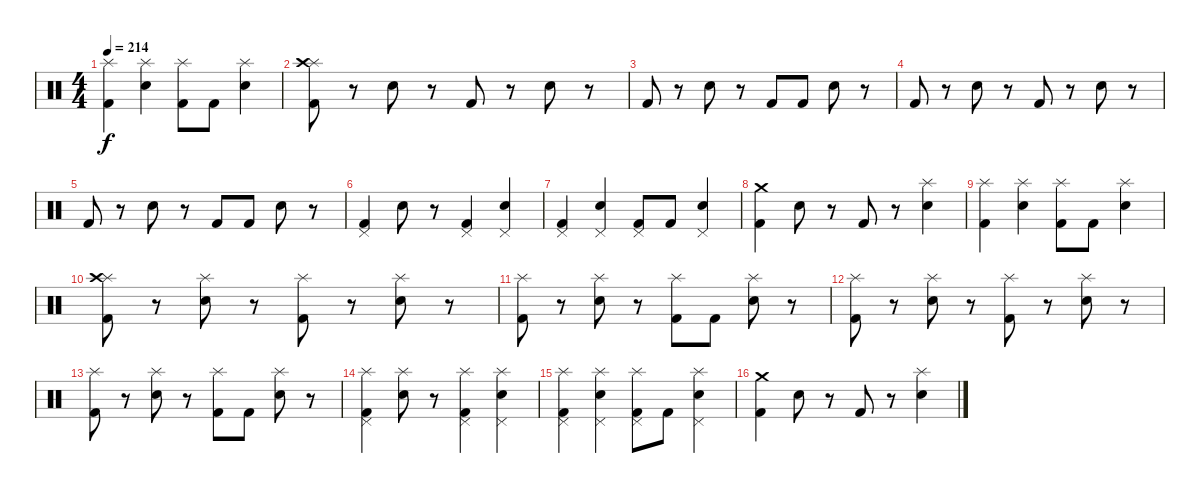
\track "" {instrument percussion}
\staff {score}
\articulation defaults
\ts (4 4)
\tempo 214
\clef neutral
\ks c
("Splash (hit)" "Kick (hit) 2").4{dy f} ("Splash (hit)" "Electric Snare (hit)").4 ("Splash (hit)" "Kick (hit) 2").8 "Kick (hit) 2".8 ("Splash (hit)" "Electric Snare (hit)").4 |
("Splash (hit)" "Crash high (hit)" "Kick (hit) 2").8 r.8 "Electric Snare (hit)".8 r.8 "Kick (hit) 2".8 r.8 "Electric Snare (hit)".8 r.8 |
"Kick (hit) 2".8 r.8 "Electric Snare (hit)".8 r.8 "Kick (hit) 2".8 "Kick (hit) 2".8 "Electric Snare (hit)".8 r.8 |
"Kick (hit) 2".8 r.8 "Electric Snare (hit)".8 r.8 "Kick (hit) 2".8 r.8 "Electric Snare (hit)".8 r.8 |
"Kick (hit) 2".8 r.8 "Electric Snare (hit)".8 r.8 "Kick (hit) 2".8 "Kick (hit) 2".8 "Electric Snare (hit)".8 r.8 |
("Pedal Hi-Hat (hit)" "Kick (hit) 2").4 "Electric Snare (hit)".8 r.8 ("Pedal Hi-Hat (hit)" "Kick (hit) 2").4 ("Pedal Hi-Hat (hit)" "Electric Snare (hit)").4 |
("Pedal Hi-Hat (hit)" "Kick (hit) 2").4 ("Pedal Hi-Hat (hit)" "Electric Snare (hit)").4 ("Pedal Hi-Hat (hit)" "Kick (hit) 2").8 "Kick (hit) 2".8 ("Pedal Hi-Hat (hit)" "Electric Snare (hit)").4 |
("Crash medium (hit)" "Kick (hit) 2").4 "Electric Snare (hit)".8 r.8 "Kick (hit) 2".8 r.8 ("Splash (hit)" "Electric Snare (hit)").4 |
("Splash (hit)" "Kick (hit) 2").4 ("Splash (hit)" "Electric Snare (hit)").4 ("Splash (hit)" "Kick (hit) 2").8 "Kick (hit) 2".8 ("Splash (hit)" "Electric Snare (hit)").4 |
("Splash (hit)" "Crash high (hit)" "Kick (hit) 2").8 r.8 ("Splash (hit)" "Electric Snare (hit)").8 r.8 ("Splash (hit)" "Kick (hit) 2").8 r.8 ("Splash (hit)" "Electric Snare (hit)").8 r.8 |
("Splash (hit)" "Kick (hit) 2").8 r.8 ("Splash (hit)" "Electric Snare (hit)").8 r.8 ("Splash (hit)" "Kick (hit) 2").8 "Kick (hit) 2".8 ("Splash (hit)" "Electric Snare (hit)").8 r.8 |
("Splash (hit)" "Kick (hit) 2").8 r.8 ("Splash (hit)" "Electric Snare (hit)").8 r.8 ("Splash (hit)" "Kick (hit) 2").8 r.8 ("Splash (hit)" "Electric Snare (hit)").8 r.8 |
("Splash (hit)" "Kick (hit) 2").8 r.8 ("Splash (hit)" "Electric Snare (hit)").8 r.8 ("Splash (hit)" "Kick (hit) 2").8 "Kick (hit) 2".8 ("Splash (hit)" "Electric Snare (hit)").8 r.8 |
("Splash (hit)" "Pedal Hi-Hat (hit)" "Kick (hit) 2").4 ("Splash (hit)" "Electric Snare (hit)").8 r.8 ("Splash (hit)" "Pedal Hi-Hat (hit)" "Kick (hit) 2").4 ("Splash (hit)" "Pedal Hi-Hat (hit)" "Electric Snare (hit)").4 |
("Splash (hit)" "Pedal Hi-Hat (hit)" "Kick (hit) 2").4 ("Splash (hit)" "Pedal Hi-Hat (hit)" "Electric Snare (hit)").4 ("Splash (hit)" "Pedal Hi-Hat (hit)" "Kick (hit) 2").8 "Kick (hit) 2".8 ("Splash (hit)" "Pedal Hi-Hat (hit)" "Electric Snare (hit)").4 |
("Crash medium (hit)" "Kick (hit) 2").4 "Electric Snare (hit)".8 r.8 "Kick (hit) 2".8 r.8 ("Splash (hit)" "Electric Snare (hit)").4
